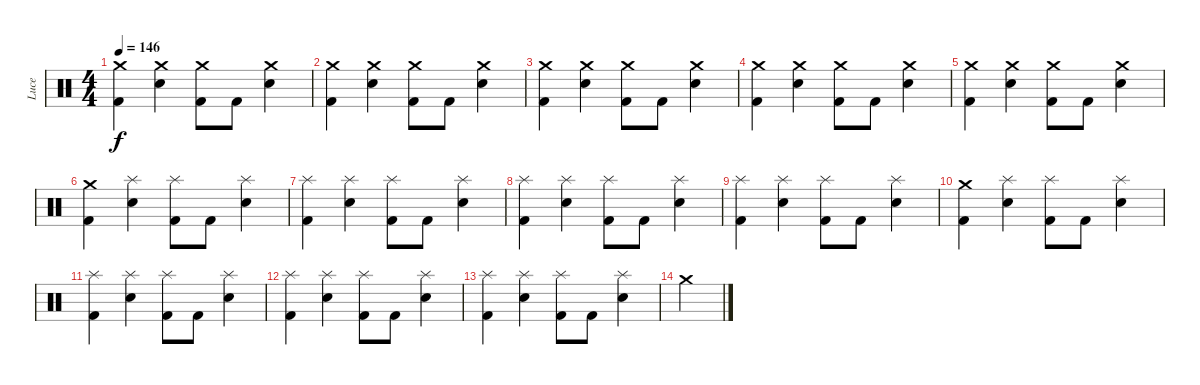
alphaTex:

\track ("Luce" "Luce") {instrument percussion}
\staff {score}
\articulation defaults
\ts (4 4)
\tempo 146
\clef neutral
\ks c
("Kick (hit) 2" "Crash medium (hit)").4{dy f} ("Electric Snare (hit)" "Crash medium (hit)").4 ("Kick (hit) 2" "Crash medium (hit)").8 "Kick (hit) 2".8 ("Electric Snare (hit)" "Crash medium (hit)").4 |
("Crash medium (hit)" "Kick (hit) 2").4 ("Crash medium (hit)" "Electric Snare (hit)").4 ("Kick (hit) 2" "Crash medium (hit)").8 "Kick (hit) 2".8 ("Crash medium (hit)" "Electric Snare (hit)").4 |
("Kick (hit) 2" "Crash medium (hit)").4 ("Crash medium (hit)" "Electric Snare (hit)").4 ("Kick (hit) 2" "Crash medium (hit)").8 "Kick (hit) 2".8 ("Crash medium (hit)" "Electric Snare (hit)").4 |
("Kick (hit) 2" "Crash medium (hit)").4 ("Electric Snare (hit)" "Crash medium (hit)").4 ("Kick (hit) 2" "Crash medium (hit)").8 "Kick (hit) 2".8 ("Electric Snare (hit)" "Crash medium (hit)").4 |
("Kick (hit) 2" "Crash medium (hit)").4 ("Electric Snare (hit)" "Crash medium (hit)").4 ("Kick (hit) 2" "Crash medium (hit)").8 "Kick (hit) 2".8 ("Electric Snare (hit)" "Crash medium (hit)").4 |
("Kick (hit) 2" "Crash medium (hit)").4 ("Splash (hit)" "Electric Snare (hit)").4 ("Kick (hit) 2" "Splash (hit)").8 "Kick (hit) 2".8 ("Splash (hit)" "Electric Snare (hit)").4 |
("Kick (hit) 2" "Splash (hit)").4 ("Splash (hit)" "Electric Snare (hit)").4 ("Kick (hit) 2" "Splash (hit)").8 "Kick (hit) 2".8 ("Splash (hit)" "Electric Snare (hit)").4 |
("Kick (hit) 2" "Splash (hit)").4 ("Electric Snare (hit)" "Splash (hit)").4 ("Kick (hit) 2" "Splash (hit)").8 "Kick (hit) 2".8 ("Electric Snare (hit)" "Splash (hit)").4 |
("Kick (hit) 2" "Splash (hit)").4 ("Electric Snare (hit)" "Splash (hit)").4 ("Kick (hit) 2" "Splash (hit)").8 "Kick (hit) 2".8 ("Electric Snare (hit)" "Splash (hit)").4 |
("Kick (hit) 2" "Crash medium (hit)").4 ("Splash (hit)" "Electric Snare (hit)").4 ("Kick (hit) 2" "Splash (hit)").8 "Kick (hit) 2".8 ("Splash (hit)" "Electric Snare (hit)").4 |
("Kick (hit) 2" "Splash (hit)").4 ("Splash (hit)" "Electric Snare (hit)").4 ("Kick (hit) 2" "Splash (hit)").8 "Kick (hit) 2".8 ("Splash (hit)" "Electric Snare (hit)").4 |
("Kick (hit) 2" "Splash (hit)").4 ("Electric Snare (hit)" "Splash (hit)").4 ("Kick (hit) 2" "Splash (hit)").8 "Kick (hit) 2".8 ("Electric Snare (hit)" "Splash (hit)").4 |
("Kick (hit) 2" "Splash (hit)").4 ("Electric Snare (hit)" "Splash (hit)").4 ("Kick (hit) 2" "Splash (hit)").8 "Kick (hit) 2".8 ("Electric Snare (hit)" "Splash (hit)").4 |
"Crash medium (hit)".4
